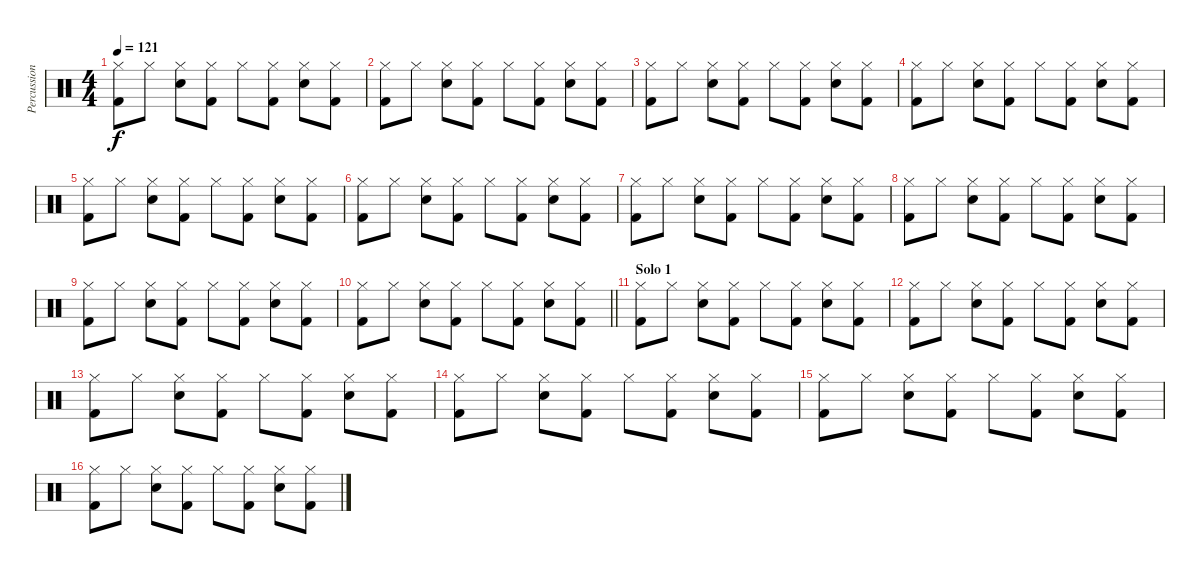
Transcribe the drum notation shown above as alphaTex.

\track ("Percussion" "Percussion") {instrument percussion}
\staff {score}
\articulation defaults
\ts (4 4)
\tempo 121
\clef neutral
\ks c
("Hi-Hat (closed)" "Kick (hit) 2").8{dy f} "Hi-Hat (closed)".8 ("Hi-Hat (closed)" "Snare (hit) 2").8 ("Hi-Hat (closed)" "Kick (hit) 2").8 "Hi-Hat (closed)".8 ("Hi-Hat (closed)" "Kick (hit) 2").8 ("Hi-Hat (closed)" "Snare (hit) 2").8 ("Hi-Hat (closed)" "Kick (hit) 2").8 |
("Hi-Hat (closed)" "Kick (hit) 2").8 "Hi-Hat (closed)".8 ("Hi-Hat (closed)" "Snare (hit) 2").8 ("Hi-Hat (closed)" "Kick (hit) 2").8 "Hi-Hat (closed)".8 ("Hi-Hat (closed)" "Kick (hit) 2").8 ("Hi-Hat (closed)" "Snare (hit) 2").8 ("Hi-Hat (closed)" "Kick (hit) 2").8 |
("Hi-Hat (closed)" "Kick (hit) 2").8 "Hi-Hat (closed)".8 ("Hi-Hat (closed)" "Snare (hit) 2").8 ("Hi-Hat (closed)" "Kick (hit) 2").8 "Hi-Hat (closed)".8 ("Hi-Hat (closed)" "Kick (hit) 2").8 ("Hi-Hat (closed)" "Snare (hit) 2").8 ("Hi-Hat (closed)" "Kick (hit) 2").8 |
("Hi-Hat (closed)" "Kick (hit) 2").8 "Hi-Hat (closed)".8 ("Hi-Hat (closed)" "Snare (hit) 2").8 ("Hi-Hat (closed)" "Kick (hit) 2").8 "Hi-Hat (closed)".8 ("Hi-Hat (closed)" "Kick (hit) 2").8 ("Hi-Hat (closed)" "Snare (hit) 2").8 ("Hi-Hat (closed)" "Kick (hit) 2").8 |
("Hi-Hat (closed)" "Kick (hit) 2").8 "Hi-Hat (closed)".8 ("Hi-Hat (closed)" "Snare (hit) 2").8 ("Hi-Hat (closed)" "Kick (hit) 2").8 "Hi-Hat (closed)".8 ("Hi-Hat (closed)" "Kick (hit) 2").8 ("Hi-Hat (closed)" "Snare (hit) 2").8 ("Hi-Hat (closed)" "Kick (hit) 2").8 |
("Hi-Hat (closed)" "Kick (hit) 2").8 "Hi-Hat (closed)".8 ("Hi-Hat (closed)" "Snare (hit) 2").8 ("Hi-Hat (closed)" "Kick (hit) 2").8 "Hi-Hat (closed)".8 ("Hi-Hat (closed)" "Kick (hit) 2").8 ("Hi-Hat (closed)" "Snare (hit) 2").8 ("Hi-Hat (closed)" "Kick (hit) 2").8 |
("Hi-Hat (closed)" "Kick (hit) 2").8 "Hi-Hat (closed)".8 ("Hi-Hat (closed)" "Snare (hit) 2").8 ("Hi-Hat (closed)" "Kick (hit) 2").8 "Hi-Hat (closed)".8 ("Hi-Hat (closed)" "Kick (hit) 2").8 ("Hi-Hat (closed)" "Snare (hit) 2").8 ("Hi-Hat (closed)" "Kick (hit) 2").8 |
("Hi-Hat (closed)" "Kick (hit) 2").8 "Hi-Hat (closed)".8 ("Hi-Hat (closed)" "Snare (hit) 2").8 ("Hi-Hat (closed)" "Kick (hit) 2").8 "Hi-Hat (closed)".8 ("Hi-Hat (closed)" "Kick (hit) 2").8 ("Hi-Hat (closed)" "Snare (hit) 2").8 ("Hi-Hat (closed)" "Kick (hit) 2").8 |
("Hi-Hat (closed)" "Kick (hit) 2").8 "Hi-Hat (closed)".8 ("Hi-Hat (closed)" "Snare (hit) 2").8 ("Hi-Hat (closed)" "Kick (hit) 2").8 "Hi-Hat (closed)".8 ("Hi-Hat (closed)" "Kick (hit) 2").8 ("Hi-Hat (closed)" "Snare (hit) 2").8 ("Hi-Hat (closed)" "Kick (hit) 2").8 |
\barLineRight lightlight
("Hi-Hat (closed)" "Kick (hit) 2").8 "Hi-Hat (closed)".8 ("Hi-Hat (closed)" "Snare (hit) 2").8 ("Hi-Hat (closed)" "Kick (hit) 2").8 "Hi-Hat (closed)".8 ("Hi-Hat (closed)" "Kick (hit) 2").8 ("Hi-Hat (closed)" "Snare (hit) 2").8 ("Hi-Hat (closed)" "Kick (hit) 2").8 |
\section ("" "Solo 1")
("Hi-Hat (closed)" "Kick (hit) 2").8 "Hi-Hat (closed)".8 ("Hi-Hat (closed)" "Snare (hit) 2").8 ("Hi-Hat (closed)" "Kick (hit) 2").8 "Hi-Hat (closed)".8 ("Hi-Hat (closed)" "Kick (hit) 2").8 ("Hi-Hat (closed)" "Snare (hit) 2").8 ("Hi-Hat (closed)" "Kick (hit) 2").8 |
("Hi-Hat (closed)" "Kick (hit) 2").8 "Hi-Hat (closed)".8 ("Hi-Hat (closed)" "Snare (hit) 2").8 ("Hi-Hat (closed)" "Kick (hit) 2").8 "Hi-Hat (closed)".8 ("Hi-Hat (closed)" "Kick (hit) 2").8 ("Hi-Hat (closed)" "Snare (hit) 2").8 ("Hi-Hat (closed)" "Kick (hit) 2").8 |
("Hi-Hat (closed)" "Kick (hit) 2").8 "Hi-Hat (closed)".8 ("Hi-Hat (closed)" "Snare (hit) 2").8 ("Hi-Hat (closed)" "Kick (hit) 2").8 "Hi-Hat (closed)".8 ("Hi-Hat (closed)" "Kick (hit) 2").8 ("Hi-Hat (closed)" "Snare (hit) 2").8 ("Hi-Hat (closed)" "Kick (hit) 2").8 |
("Hi-Hat (closed)" "Kick (hit) 2").8 "Hi-Hat (closed)".8 ("Hi-Hat (closed)" "Snare (hit) 2").8 ("Hi-Hat (closed)" "Kick (hit) 2").8 "Hi-Hat (closed)".8 ("Hi-Hat (closed)" "Kick (hit) 2").8 ("Hi-Hat (closed)" "Snare (hit) 2").8 ("Hi-Hat (closed)" "Kick (hit) 2").8 |
("Hi-Hat (closed)" "Kick (hit) 2").8 "Hi-Hat (closed)".8 ("Hi-Hat (closed)" "Snare (hit) 2").8 ("Hi-Hat (closed)" "Kick (hit) 2").8 "Hi-Hat (closed)".8 ("Hi-Hat (closed)" "Kick (hit) 2").8 ("Hi-Hat (closed)" "Snare (hit) 2").8 ("Hi-Hat (closed)" "Kick (hit) 2").8 |
("Hi-Hat (closed)" "Kick (hit) 2").8 "Hi-Hat (closed)".8 ("Hi-Hat (closed)" "Snare (hit) 2").8 ("Hi-Hat (closed)" "Kick (hit) 2").8 "Hi-Hat (closed)".8 ("Hi-Hat (closed)" "Kick (hit) 2").8 ("Hi-Hat (closed)" "Snare (hit) 2").8 ("Hi-Hat (closed)" "Kick (hit) 2").8
